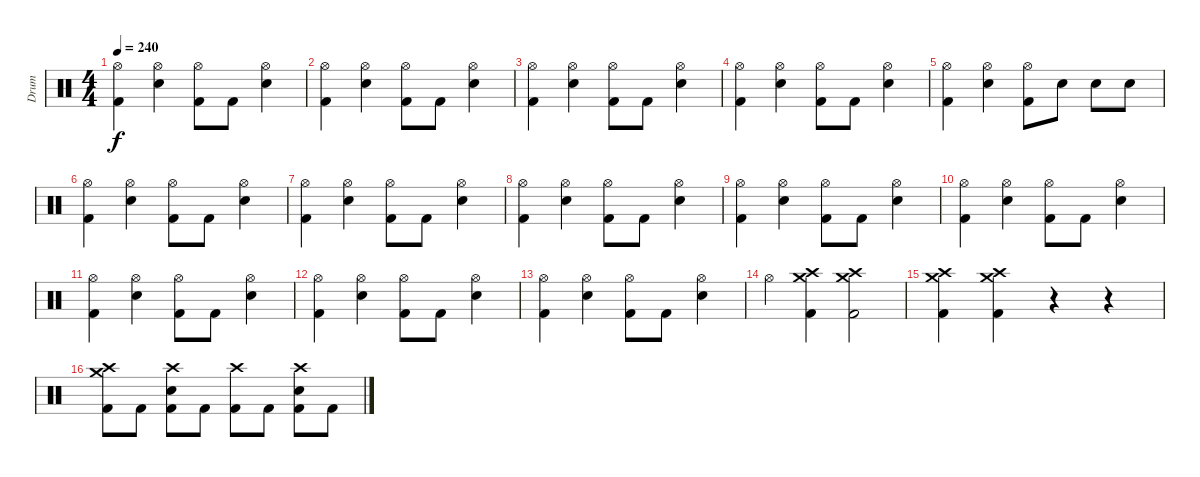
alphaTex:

\track ("Drum" "Drum") {instrument percussion}
\staff {score}
\articulation defaults
\ts (4 4)
\tempo 240
\clef neutral
\ks c
("Hi-Hat (open)" "Kick (hit) 2").4{dy f} ("Hi-Hat (open)" "Electric Snare (hit)").4 ("Hi-Hat (open)" "Kick (hit) 2").8 "Kick (hit) 2".8 ("Hi-Hat (open)" "Electric Snare (hit)").4 |
("Hi-Hat (open)" "Kick (hit) 2").4 ("Hi-Hat (open)" "Electric Snare (hit)").4 ("Hi-Hat (open)" "Kick (hit) 2").8 "Kick (hit) 2".8 ("Hi-Hat (open)" "Electric Snare (hit)").4 |
("Hi-Hat (open)" "Kick (hit) 2").4 ("Hi-Hat (open)" "Electric Snare (hit)").4 ("Hi-Hat (open)" "Kick (hit) 2").8 "Kick (hit) 2".8 ("Hi-Hat (open)" "Electric Snare (hit)").4 |
("Hi-Hat (open)" "Kick (hit) 2").4 ("Hi-Hat (open)" "Electric Snare (hit)").4 ("Hi-Hat (open)" "Kick (hit) 2").8 "Kick (hit) 2".8 ("Hi-Hat (open)" "Electric Snare (hit)").4 |
("Hi-Hat (open)" "Kick (hit) 2").4 ("Hi-Hat (open)" "Electric Snare (hit)").4 ("Hi-Hat (open)" "Kick (hit) 2").8 "Electric Snare (hit)".8 "Electric Snare (hit)".8 "Electric Snare (hit)".8 |
("Hi-Hat (open)" "Kick (hit) 2").4 ("Hi-Hat (open)" "Electric Snare (hit)").4 ("Hi-Hat (open)" "Kick (hit) 2").8 "Kick (hit) 2".8 ("Hi-Hat (open)" "Electric Snare (hit)").4 |
("Hi-Hat (open)" "Kick (hit) 2").4 ("Hi-Hat (open)" "Electric Snare (hit)").4 ("Hi-Hat (open)" "Kick (hit) 2").8 "Kick (hit) 2".8 ("Hi-Hat (open)" "Electric Snare (hit)").4 |
("Hi-Hat (open)" "Kick (hit) 2").4 ("Hi-Hat (open)" "Electric Snare (hit)").4 ("Hi-Hat (open)" "Kick (hit) 2").8 "Kick (hit) 2".8 ("Hi-Hat (open)" "Electric Snare (hit)").4 |
("Hi-Hat (open)" "Kick (hit) 2").4 ("Hi-Hat (open)" "Electric Snare (hit)").4 ("Hi-Hat (open)" "Kick (hit) 2").8 "Kick (hit) 2".8 ("Hi-Hat (open)" "Electric Snare (hit)").4 |
("Hi-Hat (open)" "Kick (hit) 2").4 ("Hi-Hat (open)" "Electric Snare (hit)").4 ("Hi-Hat (open)" "Kick (hit) 2").8 "Kick (hit) 2".8 ("Hi-Hat (open)" "Electric Snare (hit)").4 |
("Hi-Hat (open)" "Kick (hit) 2").4 ("Hi-Hat (open)" "Electric Snare (hit)").4 ("Hi-Hat (open)" "Kick (hit) 2").8 "Kick (hit) 2".8 ("Hi-Hat (open)" "Electric Snare (hit)").4 |
("Hi-Hat (open)" "Kick (hit) 2").4 ("Hi-Hat (open)" "Electric Snare (hit)").4 ("Hi-Hat (open)" "Kick (hit) 2").8 "Kick (hit) 2".8 ("Hi-Hat (open)" "Electric Snare (hit)").4 |
("Hi-Hat (open)" "Kick (hit) 2").4 ("Hi-Hat (open)" "Electric Snare (hit)").4 ("Hi-Hat (open)" "Kick (hit) 2").8 "Kick (hit) 2".8 ("Hi-Hat (open)" "Electric Snare (hit)").4 |
"Hi-Hat (open)".4 ("Crash high (hit)" "Kick (hit) 2" "Crash medium (hit)").4 ("Crash high (hit)" "Kick (hit) 2" "Crash medium (hit)").2 |
("Crash high (hit)" "Kick (hit) 2" "Crash medium (hit)").4 ("Crash high (hit)" "Kick (hit) 2" "Crash medium (hit)").4 r.4 r.4 |
("Crash high (hit)" "Kick (hit) 2" "Crash medium (hit)").8 "Kick (hit) 2".8 ("Crash high (hit)" "Kick (hit) 2" "Electric Snare (hit)").8 "Kick (hit) 2".8 ("Crash high (hit)" "Kick (hit) 2").8 "Kick (hit) 2".8 ("Crash high (hit)" "Kick (hit) 2" "Electric Snare (hit)").8 "Kick (hit) 2".8
